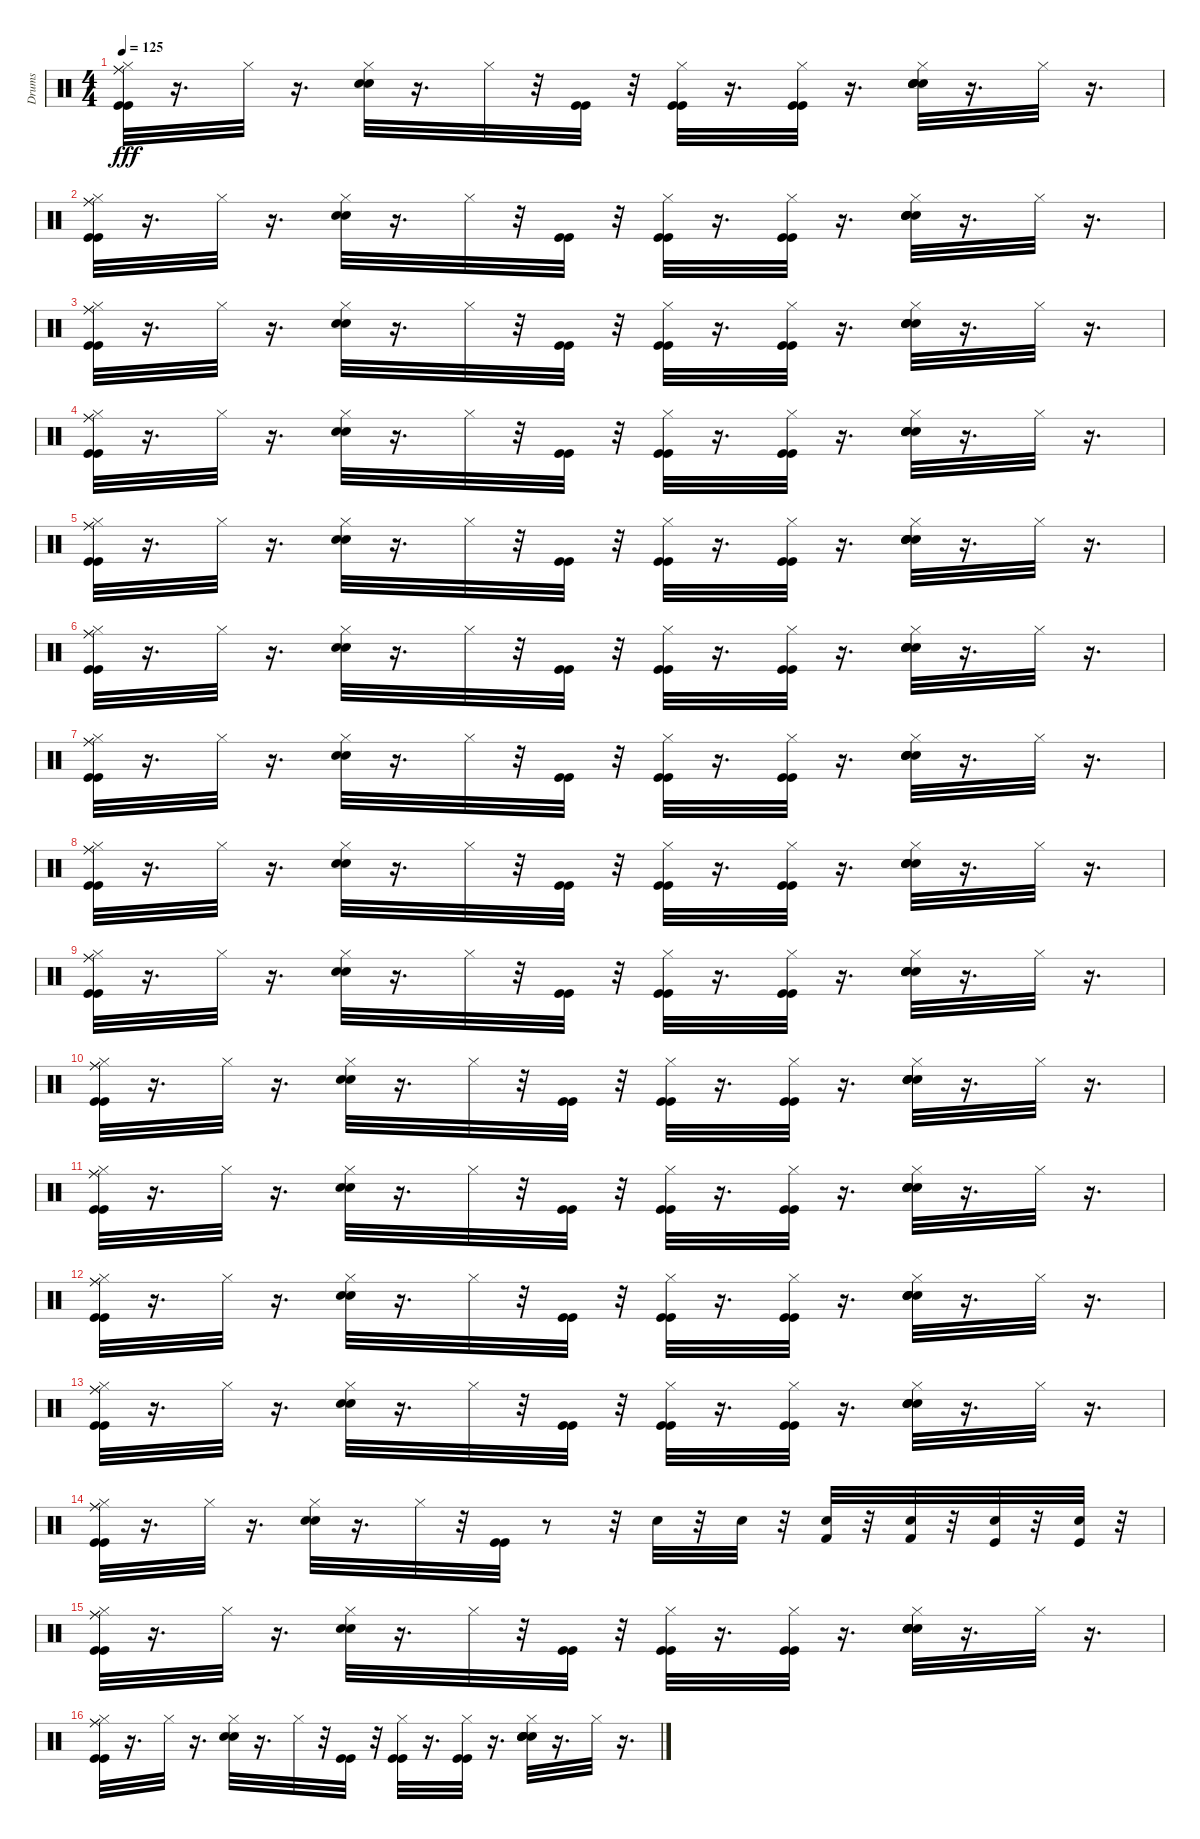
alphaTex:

\track ("Drums" "Drums") {instrument percussion}
\staff {score}
\articulation defaults
\ts (4 4)
\tempo 125
\clef neutral
\ks c
("Hi-Hat (closed)" "Kick (hit)" "Ride (middle)" "Kick (hit)" "Ride (middle)").32{dy fff} r.16{d} "Hi-Hat (closed)".32 r.16{d} ("Snare (hit) 2" "Electric Snare (hit)" "Hi-Hat (closed)").32 r.16{d} "Hi-Hat (closed)".32 r.32 ("Kick (hit)" "Kick (hit)").32 r.32 ("Hi-Hat (closed)" "Kick (hit)" "Kick (hit)").32 r.16{d} ("Hi-Hat (closed)" "Kick (hit)" "Kick (hit)").32 r.16{d} ("Hi-Hat (closed)" "Snare (hit) 2" "Electric Snare (hit)" "Snare (hit) 2" "Electric Snare (hit)").32 r.16{d} "Hi-Hat (closed)".32 r.16{d} |
("Hi-Hat (closed)" "Kick (hit)" "Ride (middle)" "Kick (hit)" "Ride (middle)").32 r.16{d} "Hi-Hat (closed)".32 r.16{d} ("Snare (hit) 2" "Electric Snare (hit)" "Hi-Hat (closed)").32 r.16{d} "Hi-Hat (closed)".32 r.32 ("Kick (hit)" "Kick (hit)").32 r.32 ("Hi-Hat (closed)" "Kick (hit)" "Kick (hit)").32 r.16{d} ("Hi-Hat (closed)" "Kick (hit)" "Kick (hit)").32 r.16{d} ("Hi-Hat (closed)" "Snare (hit) 2" "Electric Snare (hit)" "Snare (hit) 2" "Electric Snare (hit)").32 r.16{d} "Hi-Hat (closed)".32 r.16{d} |
("Hi-Hat (closed)" "Kick (hit)" "Ride (middle)" "Kick (hit)" "Ride (middle)").32 r.16{d} "Hi-Hat (closed)".32 r.16{d} ("Snare (hit) 2" "Electric Snare (hit)" "Hi-Hat (closed)").32 r.16{d} "Hi-Hat (closed)".32 r.32 ("Kick (hit)" "Kick (hit)").32 r.32 ("Hi-Hat (closed)" "Kick (hit)" "Kick (hit)").32 r.16{d} ("Hi-Hat (closed)" "Kick (hit)" "Kick (hit)").32 r.16{d} ("Hi-Hat (closed)" "Snare (hit) 2" "Electric Snare (hit)" "Snare (hit) 2" "Electric Snare (hit)").32 r.16{d} "Hi-Hat (closed)".32 r.16{d} |
("Hi-Hat (closed)" "Kick (hit)" "Ride (middle)" "Kick (hit)" "Ride (middle)").32 r.16{d} "Hi-Hat (closed)".32 r.16{d} ("Snare (hit) 2" "Electric Snare (hit)" "Hi-Hat (closed)").32 r.16{d} "Hi-Hat (closed)".32 r.32 ("Kick (hit)" "Kick (hit)").32 r.32 ("Hi-Hat (closed)" "Kick (hit)" "Kick (hit)").32 r.16{d} ("Hi-Hat (closed)" "Kick (hit)" "Kick (hit)").32 r.16{d} ("Hi-Hat (closed)" "Snare (hit) 2" "Electric Snare (hit)" "Snare (hit) 2" "Electric Snare (hit)").32 r.16{d} "Hi-Hat (closed)".32 r.16{d} |
("Hi-Hat (closed)" "Kick (hit)" "Ride (middle)" "Kick (hit)" "Ride (middle)").32 r.16{d} "Hi-Hat (closed)".32 r.16{d} ("Snare (hit) 2" "Electric Snare (hit)" "Hi-Hat (closed)").32 r.16{d} "Hi-Hat (closed)".32 r.32 ("Kick (hit)" "Kick (hit)").32 r.32 ("Hi-Hat (closed)" "Kick (hit)" "Kick (hit)").32 r.16{d} ("Hi-Hat (closed)" "Kick (hit)" "Kick (hit)").32 r.16{d} ("Hi-Hat (closed)" "Snare (hit) 2" "Electric Snare (hit)" "Snare (hit) 2" "Electric Snare (hit)").32 r.16{d} "Hi-Hat (closed)".32 r.16{d} |
("Hi-Hat (closed)" "Kick (hit)" "Ride (middle)" "Kick (hit)" "Ride (middle)").32 r.16{d} "Hi-Hat (closed)".32 r.16{d} ("Snare (hit) 2" "Electric Snare (hit)" "Hi-Hat (closed)").32 r.16{d} "Hi-Hat (closed)".32 r.32 ("Kick (hit)" "Kick (hit)").32 r.32 ("Hi-Hat (closed)" "Kick (hit)" "Kick (hit)").32 r.16{d} ("Hi-Hat (closed)" "Kick (hit)" "Kick (hit)").32 r.16{d} ("Hi-Hat (closed)" "Snare (hit) 2" "Electric Snare (hit)" "Snare (hit) 2" "Electric Snare (hit)").32 r.16{d} "Hi-Hat (closed)".32 r.16{d} |
("Hi-Hat (closed)" "Kick (hit)" "Ride (middle)" "Kick (hit)" "Ride (middle)").32 r.16{d} "Hi-Hat (closed)".32 r.16{d} ("Snare (hit) 2" "Electric Snare (hit)" "Hi-Hat (closed)").32 r.16{d} "Hi-Hat (closed)".32 r.32 ("Kick (hit)" "Kick (hit)").32 r.32 ("Hi-Hat (closed)" "Kick (hit)" "Kick (hit)").32 r.16{d} ("Hi-Hat (closed)" "Kick (hit)" "Kick (hit)").32 r.16{d} ("Hi-Hat (closed)" "Snare (hit) 2" "Electric Snare (hit)" "Snare (hit) 2" "Electric Snare (hit)").32 r.16{d} "Hi-Hat (closed)".32 r.16{d} |
("Hi-Hat (closed)" "Kick (hit)" "Ride (middle)" "Kick (hit)" "Ride (middle)").32 r.16{d} "Hi-Hat (closed)".32 r.16{d} ("Snare (hit) 2" "Electric Snare (hit)" "Hi-Hat (closed)").32 r.16{d} "Hi-Hat (closed)".32 r.32 ("Kick (hit)" "Kick (hit)").32 r.32 ("Hi-Hat (closed)" "Kick (hit)" "Kick (hit)").32 r.16{d} ("Hi-Hat (closed)" "Kick (hit)" "Kick (hit)").32 r.16{d} ("Hi-Hat (closed)" "Snare (hit) 2" "Electric Snare (hit)" "Snare (hit) 2" "Electric Snare (hit)").32 r.16{d} "Hi-Hat (closed)".32 r.16{d} |
("Hi-Hat (closed)" "Kick (hit)" "Ride (middle)" "Kick (hit)" "Ride (middle)").32 r.16{d} "Hi-Hat (closed)".32 r.16{d} ("Snare (hit) 2" "Electric Snare (hit)" "Hi-Hat (closed)").32 r.16{d} "Hi-Hat (closed)".32 r.32 ("Kick (hit)" "Kick (hit)").32 r.32 ("Hi-Hat (closed)" "Kick (hit)" "Kick (hit)").32 r.16{d} ("Hi-Hat (closed)" "Kick (hit)" "Kick (hit)").32 r.16{d} ("Hi-Hat (closed)" "Snare (hit) 2" "Electric Snare (hit)" "Snare (hit) 2" "Electric Snare (hit)").32 r.16{d} "Hi-Hat (closed)".32 r.16{d} |
("Hi-Hat (closed)" "Kick (hit)" "Ride (middle)" "Kick (hit)" "Ride (middle)").32 r.16{d} "Hi-Hat (closed)".32 r.16{d} ("Snare (hit) 2" "Electric Snare (hit)" "Hi-Hat (closed)").32 r.16{d} "Hi-Hat (closed)".32 r.32 ("Kick (hit)" "Kick (hit)").32 r.32 ("Hi-Hat (closed)" "Kick (hit)" "Kick (hit)").32 r.16{d} ("Hi-Hat (closed)" "Kick (hit)" "Kick (hit)").32 r.16{d} ("Hi-Hat (closed)" "Snare (hit) 2" "Electric Snare (hit)" "Snare (hit) 2" "Electric Snare (hit)").32 r.16{d} "Hi-Hat (closed)".32 r.16{d} |
("Hi-Hat (closed)" "Kick (hit)" "Ride (middle)" "Kick (hit)" "Ride (middle)").32 r.16{d} "Hi-Hat (closed)".32 r.16{d} ("Snare (hit) 2" "Electric Snare (hit)" "Hi-Hat (closed)").32 r.16{d} "Hi-Hat (closed)".32 r.32 ("Kick (hit)" "Kick (hit)").32 r.32 ("Hi-Hat (closed)" "Kick (hit)" "Kick (hit)").32 r.16{d} ("Hi-Hat (closed)" "Kick (hit)" "Kick (hit)").32 r.16{d} ("Hi-Hat (closed)" "Snare (hit) 2" "Electric Snare (hit)" "Snare (hit) 2" "Electric Snare (hit)").32 r.16{d} "Hi-Hat (closed)".32 r.16{d} |
("Hi-Hat (closed)" "Kick (hit)" "Ride (middle)" "Kick (hit)" "Ride (middle)").32 r.16{d} "Hi-Hat (closed)".32 r.16{d} ("Snare (hit) 2" "Electric Snare (hit)" "Hi-Hat (closed)").32 r.16{d} "Hi-Hat (closed)".32 r.32 ("Kick (hit)" "Kick (hit)").32 r.32 ("Hi-Hat (closed)" "Kick (hit)" "Kick (hit)").32 r.16{d} ("Hi-Hat (closed)" "Kick (hit)" "Kick (hit)").32 r.16{d} ("Hi-Hat (closed)" "Snare (hit) 2" "Electric Snare (hit)" "Snare (hit) 2" "Electric Snare (hit)").32 r.16{d} "Hi-Hat (closed)".32 r.16{d} |
("Hi-Hat (closed)" "Kick (hit)" "Ride (middle)" "Kick (hit)" "Ride (middle)").32 r.16{d} "Hi-Hat (closed)".32 r.16{d} ("Snare (hit) 2" "Electric Snare (hit)" "Hi-Hat (closed)").32 r.16{d} "Hi-Hat (closed)".32 r.32 ("Kick (hit)" "Kick (hit)").32 r.32 ("Hi-Hat (closed)" "Kick (hit)" "Kick (hit)").32 r.16{d} ("Hi-Hat (closed)" "Kick (hit)" "Kick (hit)").32 r.16{d} ("Hi-Hat (closed)" "Snare (hit) 2" "Electric Snare (hit)" "Snare (hit) 2" "Electric Snare (hit)").32 r.16{d} "Hi-Hat (closed)".32 r.16{d} |
("Hi-Hat (closed)" "Kick (hit)" "Ride (middle)" "Kick (hit)" "Ride (middle)").32 r.16{d} "Hi-Hat (closed)".32 r.16{d} ("Snare (hit) 2" "Electric Snare (hit)" "Hi-Hat (closed)").32 r.16{d} "Hi-Hat (closed)".32 r.32 ("Kick (hit)" "Kick (hit)").32 r.8 r.32 "Electric Snare (hit)".32 r.32 "Electric Snare (hit)".32 r.32 ("Kick (hit) 2" "Electric Snare (hit)").32 r.32 ("Kick (hit) 2" "Electric Snare (hit)").32 r.32 ("Snare (hit) 2" "Kick (hit)").32 r.32 ("Snare (hit) 2" "Kick (hit)").32 r.32 |
("Hi-Hat (closed)" "Kick (hit)" "Ride (middle)" "Kick (hit)" "Ride (middle)").32 r.16{d} "Hi-Hat (closed)".32 r.16{d} ("Snare (hit) 2" "Electric Snare (hit)" "Hi-Hat (closed)").32 r.16{d} "Hi-Hat (closed)".32 r.32 ("Kick (hit)" "Kick (hit)").32 r.32 ("Hi-Hat (closed)" "Kick (hit)" "Kick (hit)").32 r.16{d} ("Hi-Hat (closed)" "Kick (hit)" "Kick (hit)").32 r.16{d} ("Hi-Hat (closed)" "Snare (hit) 2" "Electric Snare (hit)" "Snare (hit) 2" "Electric Snare (hit)").32 r.16{d} "Hi-Hat (closed)".32 r.16{d} |
("Hi-Hat (closed)" "Kick (hit)" "Ride (middle)" "Kick (hit)" "Ride (middle)").32 r.16{d} "Hi-Hat (closed)".32 r.16{d} ("Snare (hit) 2" "Electric Snare (hit)" "Hi-Hat (closed)").32 r.16{d} "Hi-Hat (closed)".32 r.32 ("Kick (hit)" "Kick (hit)").32 r.32 ("Hi-Hat (closed)" "Kick (hit)" "Kick (hit)").32 r.16{d} ("Hi-Hat (closed)" "Kick (hit)" "Kick (hit)").32 r.16{d} ("Hi-Hat (closed)" "Snare (hit) 2" "Electric Snare (hit)" "Snare (hit) 2" "Electric Snare (hit)").32 r.16{d} "Hi-Hat (closed)".32 r.16{d}
